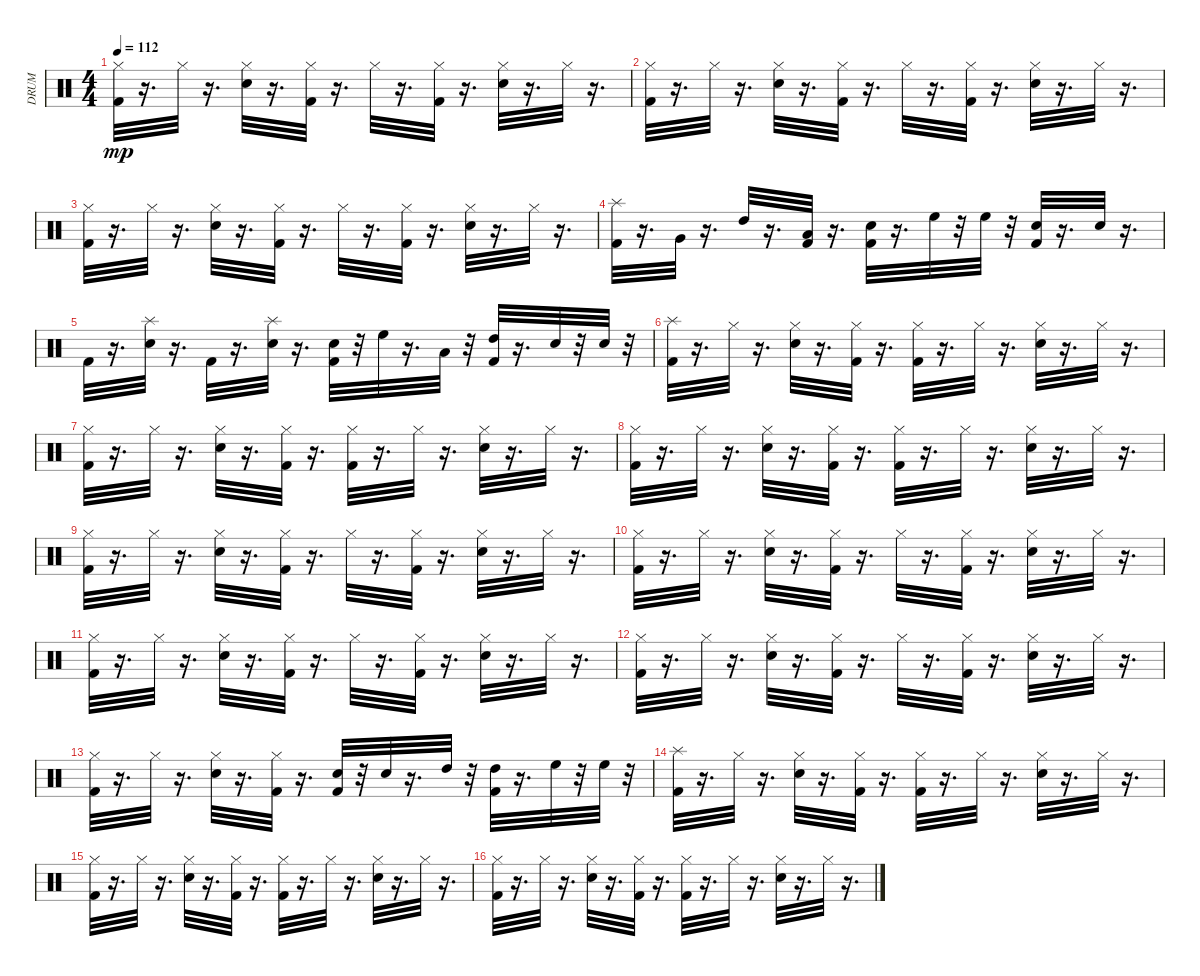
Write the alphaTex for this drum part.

\track ("DRUM" "DRUM") {instrument percussion}
\staff {score}
\articulation defaults
\ts (4 4)
\tempo 112
\clef neutral
\ks c
("Kick (hit) 2" "Hi-Hat (closed)").32{dy mp} r.16{d} "Hi-Hat (closed)".32 r.16{d} ("Hi-Hat (closed)" "Snare (hit) 2").32 r.16{d} ("Kick (hit) 2" "Hi-Hat (closed)").32 r.16{d} "Hi-Hat (closed)".32 r.16{d} ("Kick (hit) 2" "Hi-Hat (closed)").32 r.16{d} ("Hi-Hat (closed)" "Snare (hit) 2").32 r.16{d} "Hi-Hat (closed)".32 r.16{d} |
("Kick (hit) 2" "Hi-Hat (closed)").32 r.16{d} "Hi-Hat (closed)".32 r.16{d} ("Hi-Hat (closed)" "Snare (hit) 2").32 r.16{d} ("Kick (hit) 2" "Hi-Hat (closed)").32 r.16{d} "Hi-Hat (closed)".32 r.16{d} ("Kick (hit) 2" "Hi-Hat (closed)").32 r.16{d} ("Hi-Hat (closed)" "Snare (hit) 2").32 r.16{d} "Hi-Hat (closed)".32 r.16{d} |
("Kick (hit) 2" "Hi-Hat (closed)").32 r.16{d} "Hi-Hat (closed)".32 r.16{d} ("Hi-Hat (closed)" "Snare (hit) 2").32 r.16{d} ("Kick (hit) 2" "Hi-Hat (closed)").32 r.16{d} "Hi-Hat (closed)".32 r.16{d} ("Kick (hit) 2" "Hi-Hat (closed)").32 r.16{d} ("Hi-Hat (closed)" "Snare (hit) 2").32 r.16{d} "Hi-Hat (closed)".32 r.16{d} |
("Kick (hit) 2" "Splash (hit)").32 r.16{d} "Very Low Tom (hit)".32 r.16{d} "High Tom (hit)".32 r.16{d} ("Kick (hit) 2" "Low Floor Tom (hit)").32 r.16{d} ("Kick (hit) 2" "Snare (hit) 2").32 r.16{d} "High Floor Tom (hit)".32 r.32 "High Floor Tom (hit)".32 r.32 ("Kick (hit) 2" "Electric Snare (hit)").32 r.16{d} "Snare (hit) 2".32 r.16{d} |
"Kick (hit) 2".32 r.16{d} ("Snare (hit) 2" "Splash (hit)").32 r.16{d} "Kick (hit) 2".32 r.16{d} ("Snare (hit) 2" "Splash (hit)").32 r.16{d} ("Kick (hit) 2" "Snare (hit) 2").32 r.32 "High Floor Tom (hit)".32 r.16{d} "Low Floor Tom (hit)".32 r.32 ("Kick (hit) 2" "High Tom (hit)").32 r.16{d} "Snare (hit) 2".32 r.32 "Snare (hit) 2".32 r.32 |
("Kick (hit) 2" "Splash (hit)").32 r.16{d} "Hi-Hat (closed)".32 r.16{d} ("Hi-Hat (closed)" "Snare (hit) 2").32 r.16{d} ("Kick (hit) 2" "Hi-Hat (closed)").32 r.16{d} ("Kick (hit) 2" "Hi-Hat (closed)").32 r.16{d} "Hi-Hat (closed)".32 r.16{d} ("Hi-Hat (closed)" "Snare (hit) 2").32 r.16{d} "Hi-Hat (closed)".32 r.16{d} |
("Kick (hit) 2" "Hi-Hat (closed)").32 r.16{d} "Hi-Hat (closed)".32 r.16{d} ("Hi-Hat (closed)" "Snare (hit) 2").32 r.16{d} ("Kick (hit) 2" "Hi-Hat (closed)").32 r.16{d} ("Kick (hit) 2" "Hi-Hat (closed)").32 r.16{d} "Hi-Hat (closed)".32 r.16{d} ("Hi-Hat (closed)" "Snare (hit) 2").32 r.16{d} "Hi-Hat (closed)".32 r.16{d} |
("Kick (hit) 2" "Hi-Hat (closed)").32 r.16{d} "Hi-Hat (closed)".32 r.16{d} ("Hi-Hat (closed)" "Snare (hit) 2").32 r.16{d} ("Kick (hit) 2" "Hi-Hat (closed)").32 r.16{d} ("Kick (hit) 2" "Hi-Hat (closed)").32 r.16{d} "Hi-Hat (closed)".32 r.16{d} ("Hi-Hat (closed)" "Snare (hit) 2").32 r.16{d} "Hi-Hat (closed)".32 r.16{d} |
("Kick (hit) 2" "Hi-Hat (closed)").32 r.16{d} "Hi-Hat (closed)".32 r.16{d} ("Hi-Hat (closed)" "Snare (hit) 2").32 r.16{d} ("Kick (hit) 2" "Hi-Hat (closed)").32 r.16{d} "Hi-Hat (closed)".32 r.16{d} ("Kick (hit) 2" "Hi-Hat (closed)").32 r.16{d} ("Hi-Hat (closed)" "Snare (hit) 2").32 r.16{d} "Hi-Hat (closed)".32 r.16{d} |
("Kick (hit) 2" "Hi-Hat (closed)").32 r.16{d} "Hi-Hat (closed)".32 r.16{d} ("Hi-Hat (closed)" "Snare (hit) 2").32 r.16{d} ("Kick (hit) 2" "Hi-Hat (closed)").32 r.16{d} "Hi-Hat (closed)".32 r.16{d} ("Kick (hit) 2" "Hi-Hat (closed)").32 r.16{d} ("Hi-Hat (closed)" "Snare (hit) 2").32 r.16{d} "Hi-Hat (closed)".32 r.16{d} |
("Kick (hit) 2" "Hi-Hat (closed)").32 r.16{d} "Hi-Hat (closed)".32 r.16{d} ("Hi-Hat (closed)" "Snare (hit) 2").32 r.16{d} ("Kick (hit) 2" "Hi-Hat (closed)").32 r.16{d} "Hi-Hat (closed)".32 r.16{d} ("Kick (hit) 2" "Hi-Hat (closed)").32 r.16{d} ("Hi-Hat (closed)" "Snare (hit) 2").32 r.16{d} "Hi-Hat (closed)".32 r.16{d} |
("Kick (hit) 2" "Hi-Hat (closed)").32 r.16{d} "Hi-Hat (closed)".32 r.16{d} ("Hi-Hat (closed)" "Snare (hit) 2").32 r.16{d} ("Kick (hit) 2" "Hi-Hat (closed)").32 r.16{d} "Hi-Hat (closed)".32 r.16{d} ("Kick (hit) 2" "Hi-Hat (closed)").32 r.16{d} ("Hi-Hat (closed)" "Snare (hit) 2").32 r.16{d} "Hi-Hat (closed)".32 r.16{d} |
("Kick (hit) 2" "Hi-Hat (closed)").32 r.16{d} "Hi-Hat (closed)".32 r.16{d} ("Hi-Hat (closed)" "Snare (hit) 2").32 r.16{d} ("Kick (hit) 2" "Hi-Hat (closed)").32 r.16{d} ("Kick (hit) 2" "Snare (hit) 2").32 r.32 "Snare (hit) 2".32 r.16{d} "High Tom (hit)".32 r.32 ("Kick (hit) 2" "High Tom (hit)").32 r.16{d} "High Floor Tom (hit)".32 r.32 "High Floor Tom (hit)".32 r.32 |
("Kick (hit) 2" "Splash (hit)").32 r.16{d} "Hi-Hat (closed)".32 r.16{d} ("Hi-Hat (closed)" "Snare (hit) 2").32 r.16{d} ("Kick (hit) 2" "Hi-Hat (closed)").32 r.16{d} ("Kick (hit) 2" "Hi-Hat (closed)").32 r.16{d} "Hi-Hat (closed)".32 r.16{d} ("Hi-Hat (closed)" "Snare (hit) 2").32 r.16{d} "Hi-Hat (closed)".32 r.16{d} |
("Kick (hit) 2" "Hi-Hat (closed)").32 r.16{d} "Hi-Hat (closed)".32 r.16{d} ("Hi-Hat (closed)" "Snare (hit) 2").32 r.16{d} ("Kick (hit) 2" "Hi-Hat (closed)").32 r.16{d} ("Kick (hit) 2" "Hi-Hat (closed)").32 r.16{d} "Hi-Hat (closed)".32 r.16{d} ("Hi-Hat (closed)" "Snare (hit) 2").32 r.16{d} "Hi-Hat (closed)".32 r.16{d} |
("Kick (hit) 2" "Hi-Hat (closed)").32 r.16{d} "Hi-Hat (closed)".32 r.16{d} ("Hi-Hat (closed)" "Snare (hit) 2").32 r.16{d} ("Kick (hit) 2" "Hi-Hat (closed)").32 r.16{d} ("Kick (hit) 2" "Hi-Hat (closed)").32 r.16{d} "Hi-Hat (closed)".32 r.16{d} ("Hi-Hat (closed)" "Snare (hit) 2").32 r.16{d} "Hi-Hat (closed)".32 r.16{d}
